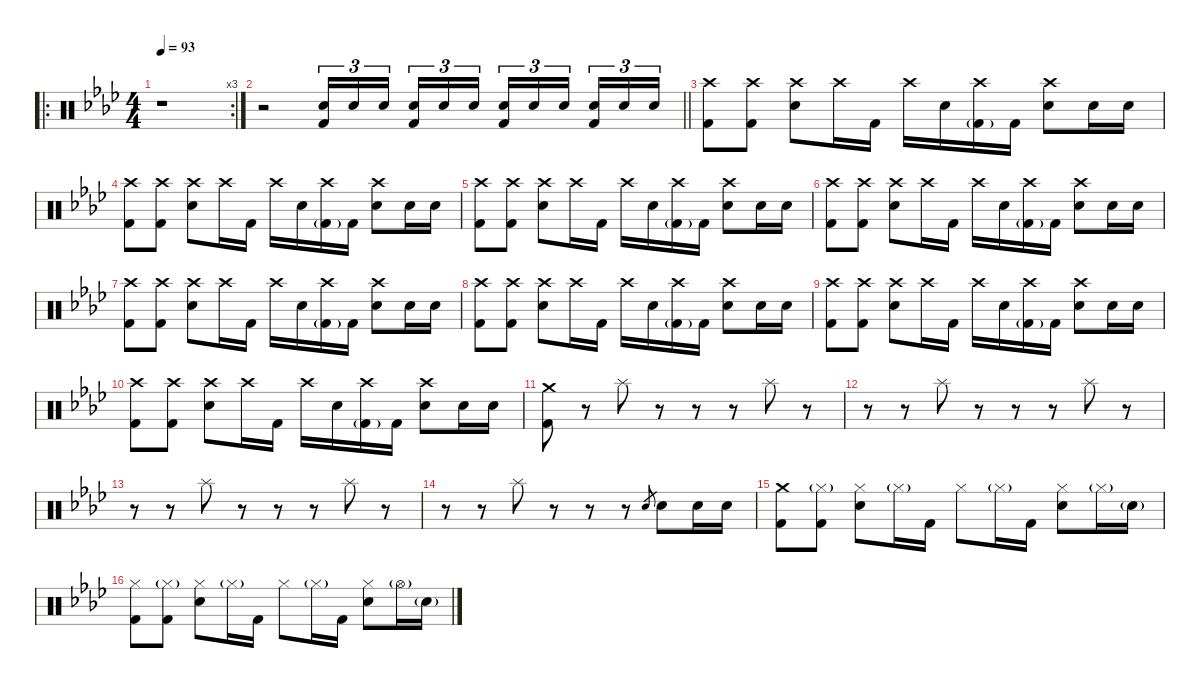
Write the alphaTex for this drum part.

\defaultSystemsLayout 4
\hideDynamics
\bracketExtendMode nobrackets
\singleTrackTrackNamePolicy hidden
\multiTrackTrackNamePolicy hidden
\firstSystemTrackNameMode fullname
\firstSystemTrackNameOrientation horizontal
\otherSystemsTrackNameOrientation horizontal
\track ("Drums" "drm.") {instrument percussion}
\staff {score}
\articulation defaults
\ro
\rc 3
\ts (4 4)
\beaming (8 2 2 2 2)
\tempo 93
\clef neutral
\ks ab
r.1{dy f beam Down} |
\barLineRight lightlight
r.2{beam Down} ("Snare (hit) 2"{acc forcenatural} "Kick (hit) 2"{acc forcenatural}).16{tu (3 2) beam Up} "Snare (hit) 2"{acc forcenatural}.16{tu (3 2) beam Up} "Snare (hit) 2"{acc forcenatural}.16{tu (3 2) beam Up} ("Snare (hit) 2"{acc forcenatural} "Kick (hit) 2"{acc forcenatural}).16{tu (3 2) beam Up} "Snare (hit) 2"{acc forcenatural}.16{tu (3 2) beam Up} "Snare (hit) 2"{acc forcenatural}.16{tu (3 2) beam Up} ("Snare (hit) 2"{acc forcenatural} "Kick (hit) 2"{acc forcenatural}).16{tu (3 2) beam Up} "Snare (hit) 2"{acc forcenatural}.16{tu (3 2) beam Up} "Snare (hit) 2"{acc forcenatural}.16{tu (3 2) beam Up} ("Snare (hit) 2"{acc forcenatural} "Kick (hit) 2"{acc forcenatural}).16{tu (3 2) beam Up} "Snare (hit) 2"{acc forcenatural}.16{tu (3 2) beam Up} "Snare (hit) 2"{acc forcenatural}.16{tu (3 2) beam Up} |
("Crash high (hit)"{acc forcenatural} "Kick (hit) 2"{acc forcenatural}).8{beam Down} ("Crash high (hit)"{acc forcenatural} "Kick (hit) 2"{acc forcenatural}).8{beam Down} ("Crash high (hit)"{acc forcenatural} "Snare (hit) 2"{acc forcenatural}).8{beam Down} "Crash high (hit)"{acc forcenatural}.16{beam Down} "Kick (hit) 2"{acc forcenatural}.16{beam Down} "Crash high (hit)"{acc forcenatural}.16{beam Down} "Snare (hit) 2"{acc forcenatural}.16{beam Down} ("Crash high (hit)"{acc forcenatural} "Kick (hit) 2"{g acc forcenatural}).16{beam Down} "Kick (hit) 2"{acc forcenatural}.16{beam Down} ("Crash high (hit)"{acc forcenatural} "Snare (hit) 2"{acc forcenatural}).8{beam Down} "Snare (hit) 2"{acc forcenatural}.16{beam Down} "Snare (hit) 2"{acc forcenatural}.16{beam Down} |
("Crash high (hit)"{acc forcenatural} "Kick (hit) 2"{acc forcenatural}).8{beam Down} ("Crash high (hit)"{acc forcenatural} "Kick (hit) 2"{acc forcenatural}).8{beam Down} ("Crash high (hit)"{acc forcenatural} "Snare (hit) 2"{acc forcenatural}).8{beam Down} "Crash high (hit)"{acc forcenatural}.16{beam Down} "Kick (hit) 2"{acc forcenatural}.16{beam Down} "Crash high (hit)"{acc forcenatural}.16{beam Down} "Snare (hit) 2"{acc forcenatural}.16{beam Down} ("Crash high (hit)"{acc forcenatural} "Kick (hit) 2"{g acc forcenatural}).16{beam Down} "Kick (hit) 2"{acc forcenatural}.16{beam Down} ("Crash high (hit)"{acc forcenatural} "Snare (hit) 2"{acc forcenatural}).8{beam Down} "Snare (hit) 2"{acc forcenatural}.16{beam Down} "Snare (hit) 2"{acc forcenatural}.16{beam Down} |
("Crash high (hit)"{acc forcenatural} "Kick (hit) 2"{acc forcenatural}).8{beam Down} ("Crash high (hit)"{acc forcenatural} "Kick (hit) 2"{acc forcenatural}).8{beam Down} ("Crash high (hit)"{acc forcenatural} "Snare (hit) 2"{acc forcenatural}).8{beam Down} "Crash high (hit)"{acc forcenatural}.16{beam Down} "Kick (hit) 2"{acc forcenatural}.16{beam Down} "Crash high (hit)"{acc forcenatural}.16{beam Down} "Snare (hit) 2"{acc forcenatural}.16{beam Down} ("Crash high (hit)"{acc forcenatural} "Kick (hit) 2"{g acc forcenatural}).16{beam Down} "Kick (hit) 2"{acc forcenatural}.16{beam Down} ("Crash high (hit)"{acc forcenatural} "Snare (hit) 2"{acc forcenatural}).8{beam Down} "Snare (hit) 2"{acc forcenatural}.16{beam Down} "Snare (hit) 2"{acc forcenatural}.16{beam Down} |
("Crash high (hit)"{acc forcenatural} "Kick (hit) 2"{acc forcenatural}).8{beam Down} ("Crash high (hit)"{acc forcenatural} "Kick (hit) 2"{acc forcenatural}).8{beam Down} ("Crash high (hit)"{acc forcenatural} "Snare (hit) 2"{acc forcenatural}).8{beam Down} "Crash high (hit)"{acc forcenatural}.16{beam Down} "Kick (hit) 2"{acc forcenatural}.16{beam Down} "Crash high (hit)"{acc forcenatural}.16{beam Down} "Snare (hit) 2"{acc forcenatural}.16{beam Down} ("Crash high (hit)"{acc forcenatural} "Kick (hit) 2"{g acc forcenatural}).16{beam Down} "Kick (hit) 2"{acc forcenatural}.16{beam Down} ("Crash high (hit)"{acc forcenatural} "Snare (hit) 2"{acc forcenatural}).8{beam Down} "Snare (hit) 2"{acc forcenatural}.16{beam Down} "Snare (hit) 2"{acc forcenatural}.16{beam Down} |
("Crash high (hit)"{acc forcenatural} "Kick (hit) 2"{acc forcenatural}).8{beam Down} ("Crash high (hit)"{acc forcenatural} "Kick (hit) 2"{acc forcenatural}).8{beam Down} ("Crash high (hit)"{acc forcenatural} "Snare (hit) 2"{acc forcenatural}).8{beam Down} "Crash high (hit)"{acc forcenatural}.16{beam Down} "Kick (hit) 2"{acc forcenatural}.16{beam Down} "Crash high (hit)"{acc forcenatural}.16{beam Down} "Snare (hit) 2"{acc forcenatural}.16{beam Down} ("Crash high (hit)"{acc forcenatural} "Kick (hit) 2"{g acc forcenatural}).16{beam Down} "Kick (hit) 2"{acc forcenatural}.16{beam Down} ("Crash high (hit)"{acc forcenatural} "Snare (hit) 2"{acc forcenatural}).8{beam Down} "Snare (hit) 2"{acc forcenatural}.16{beam Down} "Snare (hit) 2"{acc forcenatural}.16{beam Down} |
("Crash high (hit)"{acc forcenatural} "Kick (hit) 2"{acc forcenatural}).8{beam Down} ("Crash high (hit)"{acc forcenatural} "Kick (hit) 2"{acc forcenatural}).8{beam Down} ("Crash high (hit)"{acc forcenatural} "Snare (hit) 2"{acc forcenatural}).8{beam Down} "Crash high (hit)"{acc forcenatural}.16{beam Down} "Kick (hit) 2"{acc forcenatural}.16{beam Down} "Crash high (hit)"{acc forcenatural}.16{beam Down} "Snare (hit) 2"{acc forcenatural}.16{beam Down} ("Crash high (hit)"{acc forcenatural} "Kick (hit) 2"{g acc forcenatural}).16{beam Down} "Kick (hit) 2"{acc forcenatural}.16{beam Down} ("Crash high (hit)"{acc forcenatural} "Snare (hit) 2"{acc forcenatural}).8{beam Down} "Snare (hit) 2"{acc forcenatural}.16{beam Down} "Snare (hit) 2"{acc forcenatural}.16{beam Down} |
("Crash high (hit)"{acc forcenatural} "Kick (hit) 2"{acc forcenatural}).8{beam Down} ("Crash high (hit)"{acc forcenatural} "Kick (hit) 2"{acc forcenatural}).8{beam Down} ("Crash high (hit)"{acc forcenatural} "Snare (hit) 2"{acc forcenatural}).8{beam Down} "Crash high (hit)"{acc forcenatural}.16{beam Down} "Kick (hit) 2"{acc forcenatural}.16{beam Down} "Crash high (hit)"{acc forcenatural}.16{beam Down} "Snare (hit) 2"{acc forcenatural}.16{beam Down} ("Crash high (hit)"{acc forcenatural} "Kick (hit) 2"{g acc forcenatural}).16{beam Down} "Kick (hit) 2"{acc forcenatural}.16{beam Down} ("Crash high (hit)"{acc forcenatural} "Snare (hit) 2"{acc forcenatural}).8{beam Down} "Snare (hit) 2"{acc forcenatural}.16{beam Down} "Snare (hit) 2"{acc forcenatural}.16{beam Down} |
("Crash high (hit)"{acc forcenatural} "Kick (hit) 2"{acc forcenatural}).8{beam Down} ("Crash high (hit)"{acc forcenatural} "Kick (hit) 2"{acc forcenatural}).8{beam Down} ("Crash high (hit)"{acc forcenatural} "Snare (hit) 2"{acc forcenatural}).8{beam Down} "Crash high (hit)"{acc forcenatural}.16{beam Down} "Kick (hit) 2"{acc forcenatural}.16{beam Down} "Crash high (hit)"{acc forcenatural}.16{beam Down} "Snare (hit) 2"{acc forcenatural}.16{beam Down} ("Crash high (hit)"{acc forcenatural} "Kick (hit) 2"{g acc forcenatural}).16{beam Down} "Kick (hit) 2"{acc forcenatural}.16{beam Down} ("Crash high (hit)"{acc forcenatural} "Snare (hit) 2"{acc forcenatural}).8{beam Down} "Snare (hit) 2"{acc forcenatural}.16{beam Down} "Snare (hit) 2"{acc forcenatural}.16{beam Down} |
("Crash medium (hit)"{acc forcenatural} "Kick (hit) 2"{acc forcenatural}).8{beam Down} r.8{beam Down} "Splash (hit)"{acc forcenatural}.8{beam Down} r.8{beam Down} r.8{beam Down} r.8{beam Down} "Splash (hit)"{acc forcenatural}.8{beam Down} r.8{beam Down} |
r.8{beam Down} r.8{beam Down} "Splash (hit)"{acc forcenatural}.8{beam Down} r.8{beam Down} r.8{beam Down} r.8{beam Down} "Splash (hit)"{acc forcenatural}.8{beam Down} r.8{beam Down} |
r.8{beam Down} r.8{beam Down} "Splash (hit)"{acc forcenatural}.8{beam Down} r.8{beam Down} r.8{beam Down} r.8{beam Down} "Splash (hit)"{acc forcenatural}.8{beam Down} r.8{beam Down} |
r.8{beam Down} r.8{beam Down} "Splash (hit)"{acc forcenatural}.8{beam Down} r.8{beam Down} r.8{beam Down} r.8{beam Down} "Electric Snare (hit)"{acc forcenatural}.8{gr dy mf beam Up} "Snare (hit) 2"{acc forcenatural}.8{dy f beam Down} "Snare (hit) 2"{acc forcenatural}.16{beam Down} "Snare (hit) 2"{acc forcenatural}.16{beam Down} |
("Crash medium (hit)"{acc forcenatural} "Kick (hit) 2"{acc forcenatural}).8{beam Down} ("Hi-Hat (closed)"{g acc forcenatural} "Kick (hit) 2"{acc forcenatural}).8{beam Down} ("Hi-Hat (closed)"{acc forcenatural} "Snare (hit) 2"{acc forcenatural}).8{beam Down} "Hi-Hat (closed)"{g acc forcenatural}.16{dy mf beam Down} "Kick (hit) 2"{acc forcenatural}.16{dy f beam Down} "Hi-Hat (closed)"{acc forcenatural}.8{beam Down} "Hi-Hat (closed)"{g acc forcenatural}.16{dy mf beam Down} "Kick (hit) 2"{acc forcenatural}.16{dy f beam Down} ("Hi-Hat (closed)"{acc forcenatural} "Snare (hit) 2"{acc forcenatural}).8{beam Down} "Hi-Hat (closed)"{g acc forcenatural}.16{dy mf beam Down} "Snare (hit) 2"{g acc forcenatural}.16{beam Down} |
("Hi-Hat (closed)"{acc forcenatural} "Kick (hit) 2"{acc forcenatural}).8{dy f beam Down} ("Hi-Hat (closed)"{g acc forcenatural} "Kick (hit) 2"{acc forcenatural}).8{beam Down} ("Hi-Hat (closed)"{acc forcenatural} "Snare (hit) 2"{acc forcenatural}).8{beam Down} "Hi-Hat (closed)"{g acc forcenatural}.16{dy mf beam Down} "Kick (hit) 2"{acc forcenatural}.16{dy f beam Down} "Hi-Hat (closed)"{acc forcenatural}.8{beam Down} "Hi-Hat (closed)"{g acc forcenatural}.16{dy mf beam Down} "Kick (hit) 2"{acc forcenatural}.16{dy f beam Down} ("Hi-Hat (closed)"{acc forcenatural} "Snare (hit) 2"{acc forcenatural}).8{beam Down} "Hi-Hat (open)"{g acc forcenatural}.16{dy mf beam Down} "Snare (hit) 2"{g acc forcenatural}.16{beam Down}
